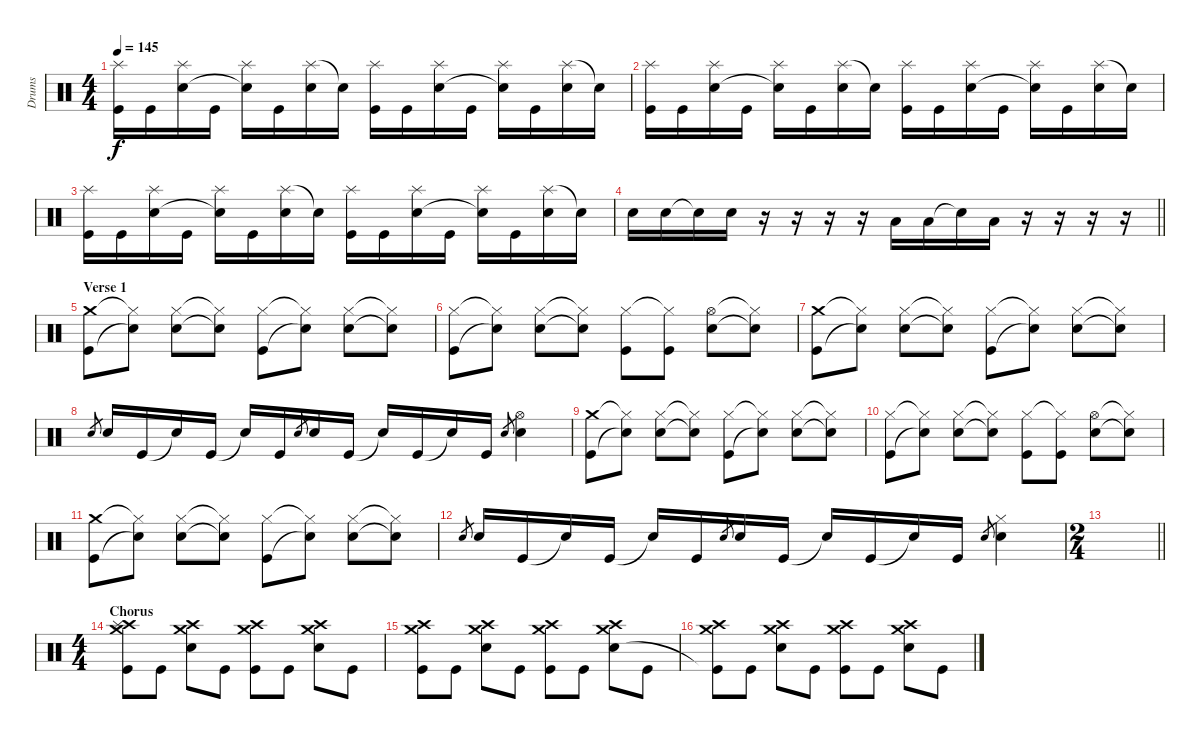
\track ("Drums" "Drums") {instrument percussion}
\staff {score}
\articulation defaults
\ts (4 4)
\tempo 145
\clef neutral
\ks c
("Splash (hit)" "Kick (hit)").16{dy f} "Kick (hit)".16 ("Splash (hit)" "Electric Snare (hit)").16 "Kick (hit)".16 ("Splash (hit)" "Snare (hit)"{t}).16 "Kick (hit)".16 ("Splash (hit)" "Electric Snare (hit)").16 "Snare (hit)"{t}.16 ("Splash (hit)" "Kick (hit)").16 "Kick (hit)".16 ("Splash (hit)" "Electric Snare (hit)").16 "Kick (hit)".16 ("Splash (hit)" "Snare (hit)"{t}).16 "Kick (hit)".16 ("Splash (hit)" "Electric Snare (hit)").16 "Snare (hit)"{t}.16 |
("Splash (hit)" "Kick (hit)").16 "Kick (hit)".16 ("Splash (hit)" "Electric Snare (hit)").16 "Kick (hit)".16 ("Splash (hit)" "Snare (hit)"{t}).16 "Kick (hit)".16 ("Splash (hit)" "Electric Snare (hit)").16 "Snare (hit)"{t}.16 ("Splash (hit)" "Kick (hit)").16 "Kick (hit)".16 ("Splash (hit)" "Electric Snare (hit)").16 "Kick (hit)".16 ("Splash (hit)" "Snare (hit)"{t}).16 "Kick (hit)".16 ("Splash (hit)" "Electric Snare (hit)").16 "Snare (hit)"{t}.16 |
("Splash (hit)" "Kick (hit)").16 "Kick (hit)".16 ("Splash (hit)" "Electric Snare (hit)").16 "Kick (hit)".16 ("Splash (hit)" "Snare (hit)"{t}).16 "Kick (hit)".16 ("Splash (hit)" "Electric Snare (hit)").16 "Snare (hit)"{t}.16 ("Splash (hit)" "Kick (hit)").16 "Kick (hit)".16 ("Splash (hit)" "Electric Snare (hit)").16 "Kick (hit)".16 ("Splash (hit)" "Snare (hit)"{t}).16 "Kick (hit)".16 ("Splash (hit)" "Electric Snare (hit)").16 "Snare (hit)"{t}.16 |
\barLineRight lightlight "Electric Snare (hit)".16 "Electric Snare (hit)".16 "Snare (hit)"{t}.16 "Electric Snare (hit)".16
r.16 r.16 r.16 r.16 "Low Floor Tom (hit)".16 "Low Floor Tom (hit)".16 "Snare (hit)"{t}.16 "Low Floor Tom (hit)".16 r.16 r.16 r.16 r.16 |
\section ("" "Verse 1")
("Crash medium (hit)" "Kick (hit)").8 ("Hi-Hat (closed)"{t} "Electric Snare (hit)"{t}).8 ("Hi-Hat (closed)" "Electric Snare (hit)").8 ("Hi-Hat (closed)"{t} "Electric Snare (hit)"{t}).8 ("Hi-Hat (closed)" "Kick (hit)").8 ("Hi-Hat (closed)"{t} "Electric Snare (hit)"{t}).8 ("Hi-Hat (closed)" "Electric Snare (hit)").8 ("Hi-Hat (closed)"{t} "Electric Snare (hit)"{t}).8 |
("Hi-Hat (closed)" "Kick (hit)").8 ("Hi-Hat (closed)"{t} "Electric Snare (hit)"{t}).8 ("Hi-Hat (closed)" "Electric Snare (hit)").8 ("Hi-Hat (closed)"{t} "Electric Snare (hit)"{t}).8 ("Hi-Hat (closed)" "Kick (hit)").8 ("Hi-Hat (closed)"{t} "Kick (hit)").8 ("Hi-Hat (open)" "Electric Snare (hit)").8 ("Hi-Hat (closed)"{t} "Electric Snare (hit)"{t}).8 |
("Crash medium (hit)" "Kick (hit)").8 ("Hi-Hat (closed)"{t} "Electric Snare (hit)"{t}).8 ("Hi-Hat (closed)" "Electric Snare (hit)").8 ("Hi-Hat (closed)"{t} "Electric Snare (hit)"{t}).8 ("Hi-Hat (closed)" "Kick (hit)").8 ("Hi-Hat (closed)"{t} "Electric Snare (hit)"{t}).8 ("Hi-Hat (closed)" "Electric Snare (hit)").8 ("Hi-Hat (closed)"{t} "Electric Snare (hit)"{t}).8 |
"Electric Snare (hit)".8{gr} "Electric Snare (hit)".16 "Kick (hit)".16 "Snare (hit)"{t}.16 "Kick (hit)".16 "Snare (hit)"{t}.16 "Kick (hit)".16 "Electric Snare (hit)".8{gr} "Electric Snare (hit)".16 "Kick (hit)".16 "Snare (hit)"{t}.16 "Kick (hit)".16 "Snare (hit)"{t}.16 "Kick (hit)".16 "Electric Snare (hit)".8{gr} ("Hi-Hat (open)" "Electric Snare (hit)").4 |
("Crash medium (hit)" "Kick (hit)").8 ("Hi-Hat (closed)"{t} "Electric Snare (hit)"{t}).8 ("Hi-Hat (closed)" "Electric Snare (hit)").8 ("Hi-Hat (closed)"{t} "Electric Snare (hit)"{t}).8 ("Hi-Hat (closed)" "Kick (hit)").8 ("Hi-Hat (closed)"{t} "Electric Snare (hit)"{t}).8 ("Hi-Hat (closed)" "Electric Snare (hit)").8 ("Hi-Hat (closed)"{t} "Electric Snare (hit)"{t}).8 |
("Hi-Hat (closed)" "Kick (hit)").8 ("Hi-Hat (closed)"{t} "Electric Snare (hit)"{t}).8 ("Hi-Hat (closed)" "Electric Snare (hit)").8 ("Hi-Hat (closed)"{t} "Electric Snare (hit)"{t}).8 ("Hi-Hat (closed)" "Kick (hit)").8 ("Hi-Hat (closed)"{t} "Kick (hit)").8 ("Hi-Hat (open)" "Electric Snare (hit)").8 ("Hi-Hat (closed)"{t} "Electric Snare (hit)"{t}).8 |
("Crash medium (hit)" "Kick (hit)").8 ("Hi-Hat (closed)"{t} "Electric Snare (hit)"{t}).8 ("Hi-Hat (closed)" "Electric Snare (hit)").8 ("Hi-Hat (closed)"{t} "Electric Snare (hit)"{t}).8 ("Hi-Hat (closed)" "Kick (hit)").8 ("Hi-Hat (closed)"{t} "Electric Snare (hit)"{t}).8 ("Hi-Hat (closed)" "Electric Snare (hit)").8 ("Hi-Hat (closed)"{t} "Electric Snare (hit)"{t}).8 |
"Electric Snare (hit)".8{gr} "Electric Snare (hit)".16 "Kick (hit)".16 "Snare (hit)"{t}.16 "Kick (hit)".16 "Snare (hit)"{t}.16 "Kick (hit)".16 "Electric Snare (hit)".8{gr} "Electric Snare (hit)".16 "Kick (hit)".16 "Snare (hit)"{t}.16 "Kick (hit)".16 "Snare (hit)"{t}.16 "Kick (hit)".16 "Electric Snare (hit)".8{gr} ("Hi-Hat (closed)" "Electric Snare (hit)").4 |
\ts (2 4)
\barLineRight lightlight
|
\ts (4 4)
\section ("" "Chorus")
("Crash medium (hit)" "Crash high (hit)" "Splash (hit)" "Kick (hit)").8 "Kick (hit)".8 ("Crash medium (hit)" "Crash high (hit)" "Electric Snare (hit)").8 "Kick (hit)".8 ("Crash medium (hit)" "Crash high (hit)" "Kick (hit)").8 "Kick (hit)".8 ("Crash medium (hit)" "Crash high (hit)" "Electric Snare (hit)").8 "Kick (hit)".8 |
("Crash medium (hit)" "Crash high (hit)" "Kick (hit)").8 "Kick (hit)".8 ("Crash medium (hit)" "Crash high (hit)" "Electric Snare (hit)").8 "Kick (hit)".8 ("Crash medium (hit)" "Crash high (hit)" "Kick (hit)").8 "Kick (hit)".8 ("Crash medium (hit)" "Crash high (hit)" "Electric Snare (hit)").8 "Kick (hit)".8 |
("Crash medium (hit)" "Crash high (hit)" "Kick (hit)"{t}).8 "Kick (hit)".8 ("Crash medium (hit)" "Crash high (hit)" "Electric Snare (hit)").8 "Kick (hit)".8 ("Crash medium (hit)" "Crash high (hit)" "Kick (hit)").8 "Kick (hit)".8 ("Crash medium (hit)" "Crash high (hit)" "Electric Snare (hit)").8 "Kick (hit)".8
